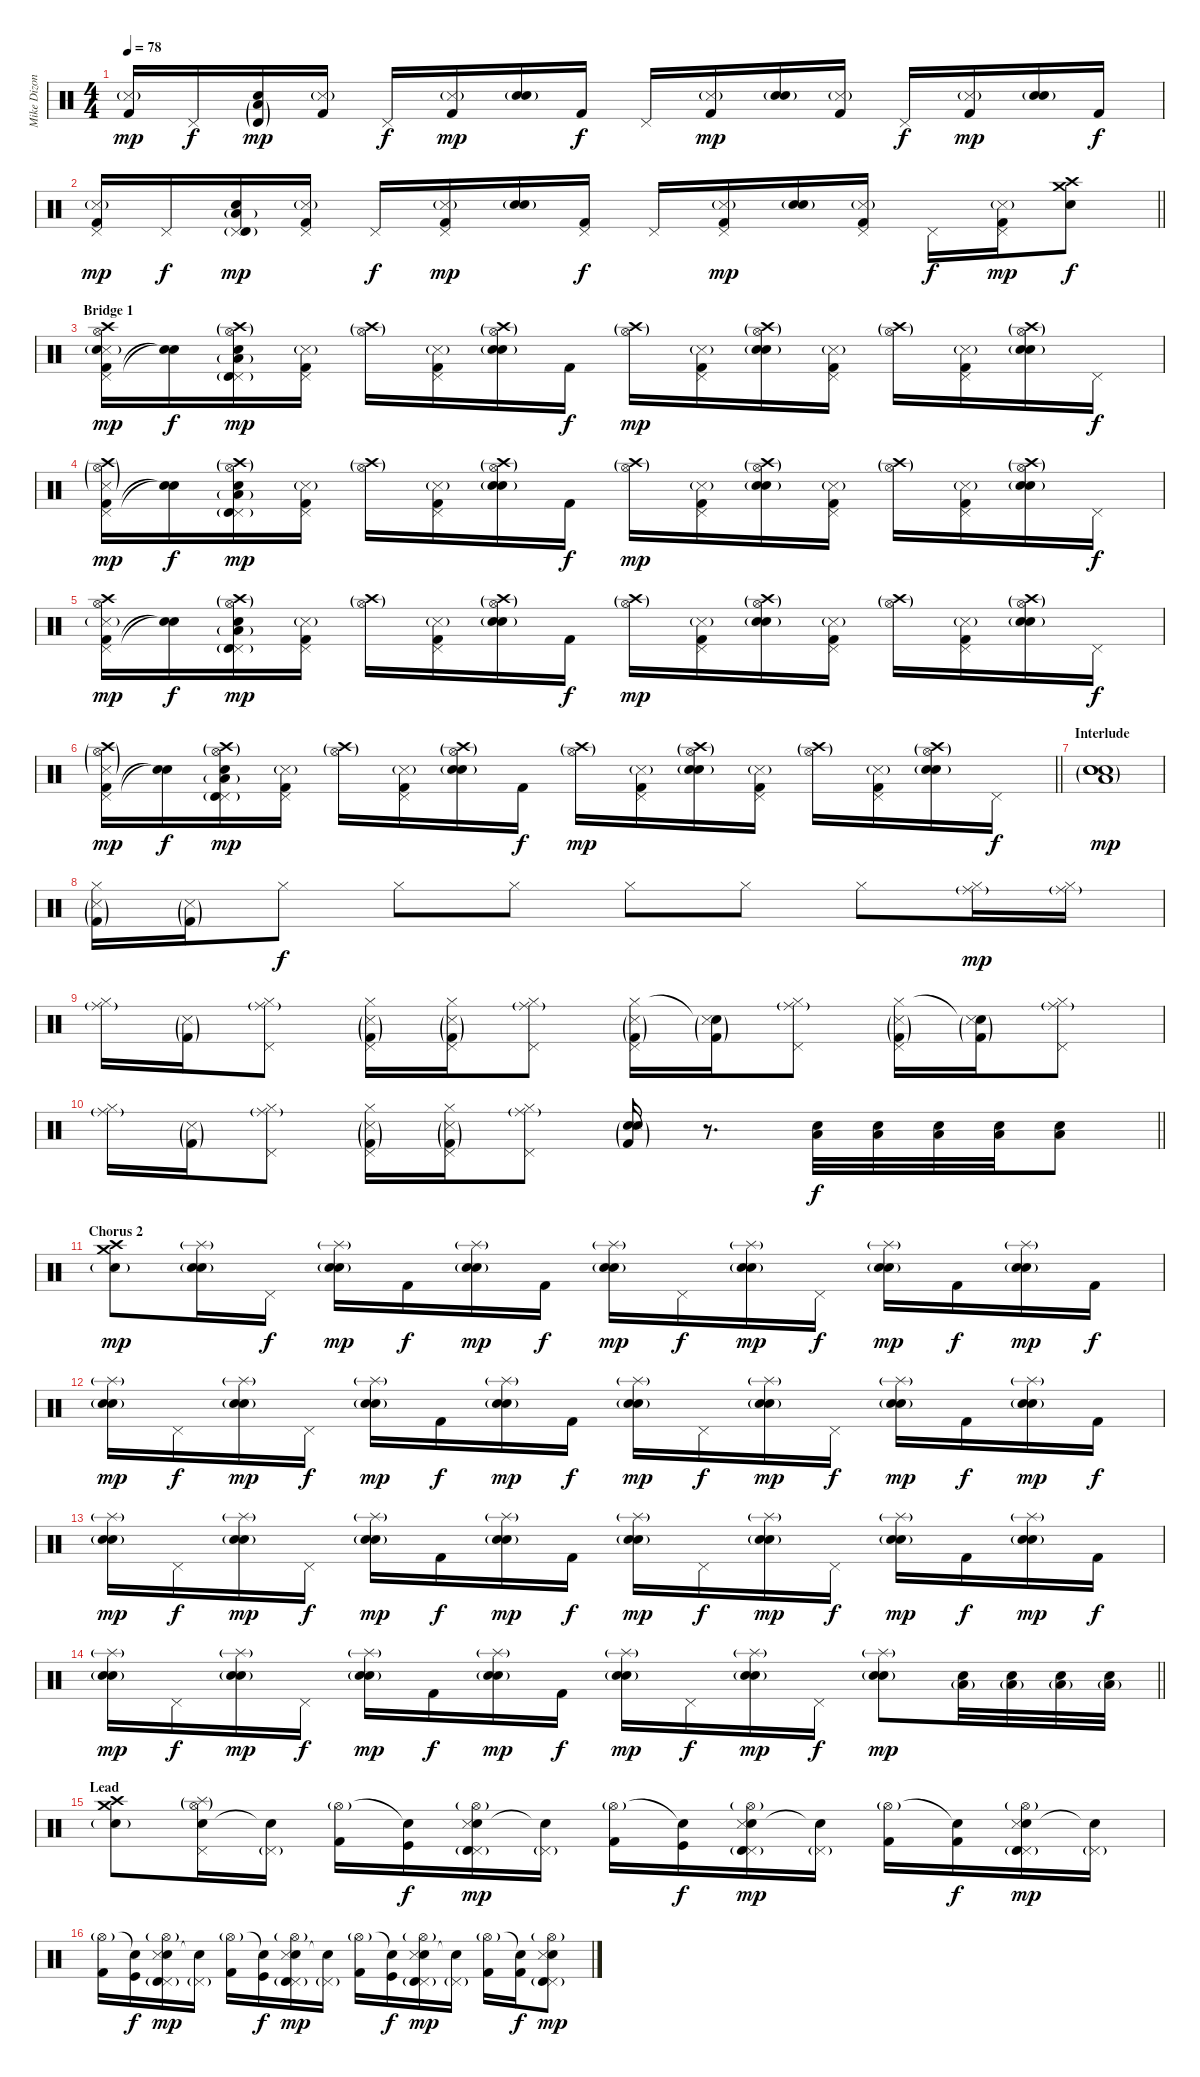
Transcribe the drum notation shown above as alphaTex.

\track ("Mike Dizon (Drums)" "Mike Dizon") {instrument percussion}
\staff {score}
\articulation defaults
\ts (4 4)
\tempo 78
\clef neutral
\ks c
("Kick (hit) 2" "Snare (side stick) 3"{g}).16{dy mp} "Pedal Hi-Hat (hit)".16{dy f} ("Electric Snare (hit)" "Timbale high (hit)"{g} "Low Tom (hit)"{g}).16{dy mp} ("Kick (hit) 2" "Snare (side stick) 3"{g}).16 "Pedal Hi-Hat (hit)".16{dy f} ("Kick (hit) 2" "Snare (side stick) 3"{g}).16{dy mp} ("Electric Snare (hit)" "Snare (hit) 2"{g}).16 "Kick (hit) 2".16{dy f} "Pedal Hi-Hat (hit)".16 ("Kick (hit) 2" "Snare (side stick) 3"{g}).16{dy mp} ("Electric Snare (hit)" "Snare (hit) 2"{g}).16 ("Kick (hit) 2" "Snare (side stick) 3"{g}).16 "Pedal Hi-Hat (hit)".16{dy f} ("Kick (hit) 2" "Snare (side stick) 3"{g}).16{dy mp} ("Electric Snare (hit)" "Snare (hit) 2"{g}).16 "Kick (hit) 2".16{dy f} |
\barLineRight lightlight
("Pedal Hi-Hat (hit)" "Kick (hit) 2" "Snare (side stick) 3"{g}).16{dy mp} "Pedal Hi-Hat (hit)".16{dy f} ("Pedal Hi-Hat (hit)" "Electric Snare (hit)" "Timbale high (hit)"{g} "Low Tom (hit)"{g}).16{dy mp} ("Pedal Hi-Hat (hit)" "Kick (hit) 2" "Snare (side stick) 3"{g}).16 "Pedal Hi-Hat (hit)".16{dy f} ("Pedal Hi-Hat (hit)" "Kick (hit) 2" "Snare (side stick) 3"{g}).16{dy mp} ("Electric Snare (hit)" "Snare (hit) 2"{g}).16 ("Pedal Hi-Hat (hit)" "Kick (hit) 2").16{dy f} "Pedal Hi-Hat (hit)".16 ("Pedal Hi-Hat (hit)" "Kick (hit) 2" "Snare (side stick) 3"{g}).16{dy mp} ("Electric Snare (hit)" "Snare (hit) 2"{g}).16 ("Pedal Hi-Hat (hit)" "Kick (hit) 2" "Snare (side stick) 3"{g}).16 "Pedal Hi-Hat (hit)".16{dy f} ("Pedal Hi-Hat (hit)" "Kick (hit) 2" "Snare (side stick) 3"{g}).16{dy mp} ("Crash medium (hit)" "Crash high (hit)" "Electric Snare (hit)").8{dy f} |
\section ("" "Bridge 1")
("Pedal Hi-Hat (hit)" "Kick (hit) 2" "Snare (side stick) 3"{g} "Electric Snare (hit)"{g} "Hi-Hat (open)" "Crash high (hit)").16{dy mp} ("Snare (hit)"{t} "Snare (hit)"{t}).16{dy f} ("Pedal Hi-Hat (hit)" "Electric Snare (hit)" "Timbale high (hit)"{g} "Low Tom (hit)"{g} "Hi-Hat (open)"{g} "Crash high (hit)"{g}).16{dy mp} ("Pedal Hi-Hat (hit)" "Kick (hit) 2" "Snare (side stick) 3"{g}).16 ("Hi-Hat (open)"{g} "Crash high (hit)"{g}).16 ("Pedal Hi-Hat (hit)" "Kick (hit) 2" "Snare (side stick) 3"{g}).16 ("Electric Snare (hit)" "Snare (hit) 2"{g} "Hi-Hat (open)"{g} "Crash high (hit)"{g}).16 "Kick (hit) 2".16{dy f} ("Hi-Hat (open)"{g} "Crash high (hit)"{g}).16{dy mp} ("Pedal Hi-Hat (hit)" "Kick (hit) 2" "Snare (side stick) 3"{g}).16 ("Electric Snare (hit)" "Snare (hit) 2"{g} "Hi-Hat (open)"{g} "Crash high (hit)"{g}).16 ("Pedal Hi-Hat (hit)" "Kick (hit) 2" "Snare (side stick) 3"{g}).16 ("Hi-Hat (open)"{g} "Crash high (hit)"{g}).16 ("Pedal Hi-Hat (hit)" "Kick (hit) 2" "Snare (side stick) 3"{g}).16 ("Electric Snare (hit)" "Snare (hit) 2"{g} "Hi-Hat (open)"{g} "Crash high (hit)"{g}).16 "Pedal Hi-Hat (hit)".16{dy f} |
("Pedal Hi-Hat (hit)" "Kick (hit) 2" "Snare (side stick) 3"{g} "Hi-Hat (open)"{g} "Crash high (hit)"{g}).16{dy mp} ("Snare (hit)"{t} "Snare (hit)"{t}).16{dy f} ("Pedal Hi-Hat (hit)" "Electric Snare (hit)" "Timbale high (hit)"{g} "Low Tom (hit)"{g} "Hi-Hat (open)"{g} "Crash high (hit)"{g}).16{dy mp} ("Pedal Hi-Hat (hit)" "Kick (hit) 2" "Snare (side stick) 3"{g}).16 ("Hi-Hat (open)"{g} "Crash high (hit)"{g}).16 ("Pedal Hi-Hat (hit)" "Kick (hit) 2" "Snare (side stick) 3"{g}).16 ("Electric Snare (hit)" "Snare (hit) 2"{g} "Hi-Hat (open)"{g} "Crash high (hit)"{g}).16 "Kick (hit) 2".16{dy f} ("Hi-Hat (open)"{g} "Crash high (hit)"{g}).16{dy mp} ("Pedal Hi-Hat (hit)" "Kick (hit) 2" "Snare (side stick) 3"{g}).16 ("Electric Snare (hit)" "Snare (hit) 2"{g} "Hi-Hat (open)"{g} "Crash high (hit)"{g}).16 ("Pedal Hi-Hat (hit)" "Kick (hit) 2" "Snare (side stick) 3"{g}).16 ("Hi-Hat (open)"{g} "Crash high (hit)"{g}).16 ("Pedal Hi-Hat (hit)" "Kick (hit) 2" "Snare (side stick) 3"{g}).16 ("Electric Snare (hit)" "Snare (hit) 2"{g} "Hi-Hat (open)"{g} "Crash high (hit)"{g}).16 "Pedal Hi-Hat (hit)".16{dy f} |
("Pedal Hi-Hat (hit)" "Kick (hit) 2" "Snare (side stick) 3"{g} "Hi-Hat (open)" "Crash high (hit)").16{dy mp} ("Snare (hit)"{t} "Snare (hit)"{t}).16{dy f} ("Pedal Hi-Hat (hit)" "Electric Snare (hit)" "Timbale high (hit)"{g} "Low Tom (hit)"{g} "Hi-Hat (open)"{g} "Crash high (hit)"{g}).16{dy mp} ("Pedal Hi-Hat (hit)" "Kick (hit) 2" "Snare (side stick) 3"{g}).16 ("Hi-Hat (open)"{g} "Crash high (hit)"{g}).16 ("Pedal Hi-Hat (hit)" "Kick (hit) 2" "Snare (side stick) 3"{g}).16 ("Electric Snare (hit)" "Snare (hit) 2"{g} "Hi-Hat (open)"{g} "Crash high (hit)"{g}).16 "Kick (hit) 2".16{dy f} ("Hi-Hat (open)"{g} "Crash high (hit)"{g}).16{dy mp} ("Pedal Hi-Hat (hit)" "Kick (hit) 2" "Snare (side stick) 3"{g}).16 ("Electric Snare (hit)" "Snare (hit) 2"{g} "Hi-Hat (open)"{g} "Crash high (hit)"{g}).16 ("Pedal Hi-Hat (hit)" "Kick (hit) 2" "Snare (side stick) 3"{g}).16 ("Hi-Hat (open)"{g} "Crash high (hit)"{g}).16 ("Pedal Hi-Hat (hit)" "Kick (hit) 2" "Snare (side stick) 3"{g}).16 ("Electric Snare (hit)" "Snare (hit) 2"{g} "Hi-Hat (open)"{g} "Crash high (hit)"{g}).16 "Pedal Hi-Hat (hit)".16{dy f} |
\barLineRight lightlight
("Pedal Hi-Hat (hit)" "Kick (hit) 2" "Snare (side stick) 3"{g} "Hi-Hat (open)"{g} "Crash high (hit)"{g}).16{dy mp} ("Snare (hit)"{t} "Snare (hit)"{t}).16{dy f} ("Pedal Hi-Hat (hit)" "Electric Snare (hit)" "Timbale high (hit)"{g} "Low Tom (hit)"{g} "Hi-Hat (open)"{g} "Crash high (hit)"{g}).16{dy mp} ("Pedal Hi-Hat (hit)" "Kick (hit) 2" "Snare (side stick) 3"{g}).16 ("Hi-Hat (open)"{g} "Crash high (hit)"{g}).16 ("Pedal Hi-Hat (hit)" "Kick (hit) 2" "Snare (side stick) 3"{g}).16 ("Electric Snare (hit)" "Snare (hit) 2"{g} "Hi-Hat (open)"{g} "Crash high (hit)"{g}).16 "Kick (hit) 2".16{dy f} ("Hi-Hat (open)"{g} "Crash high (hit)"{g}).16{dy mp} ("Pedal Hi-Hat (hit)" "Kick (hit) 2" "Snare (side stick) 3"{g}).16 ("Electric Snare (hit)" "Snare (hit) 2"{g} "Hi-Hat (open)"{g} "Crash high (hit)"{g}).16 ("Pedal Hi-Hat (hit)" "Kick (hit) 2" "Snare (side stick) 3"{g}).16 ("Hi-Hat (open)"{g} "Crash high (hit)"{g}).16 ("Pedal Hi-Hat (hit)" "Kick (hit) 2" "Snare (side stick) 3"{g}).16 ("Electric Snare (hit)" "Snare (hit) 2"{g} "Hi-Hat (open)"{g} "Crash high (hit)"{g}).16 "Pedal Hi-Hat (hit)".16{dy f} |
\section ("" "Interlude")
("Electric Snare (hit)" "Electric Snare (hit)" "Low Floor Tom (hit)"{g} "Snare (hit) 2"{g}).1{dy mp} |
("Hi-Hat (closed)" "Snare (side stick) 3"{g} "Kick (hit) 2"{g}).16 ("Snare (side stick) 3"{g} "Kick (hit) 2"{g}).16 "Hi-Hat (closed)".8{dy f} "Hi-Hat (closed)".8 "Hi-Hat (closed)".8 "Hi-Hat (closed)".8 "Hi-Hat (closed)".8 "Hi-Hat (closed)".8 ("Hi-Hat (closed)" "Ride (middle)"{g}).16{dy mp} ("Hi-Hat (closed)" "Ride (middle)"{g}).16 |
("Hi-Hat (closed)" "Ride (middle)"{g}).16 ("Snare (side stick) 3"{g} "Kick (hit) 2"{g}).16 ("Hi-Hat (closed)" "Pedal Hi-Hat (hit)" "Ride (middle)"{g}).8 ("Hi-Hat (closed)" "Pedal Hi-Hat (hit)" "Snare (side stick) 3"{g} "Kick (hit) 2"{g}).16 ("Hi-Hat (closed)" "Pedal Hi-Hat (hit)" "Snare (side stick) 3"{g} "Kick (hit) 2"{g}).16 ("Hi-Hat (closed)" "Pedal Hi-Hat (hit)" "Ride (middle)"{g}).8 ("Hi-Hat (closed)" "Pedal Hi-Hat (hit)" "Snare (side stick) 3"{g} "Kick (hit) 2"{g}).16 ("Snare (hit)"{t} "Snare (side stick) 3"{g} "Kick (hit) 2"{g}).16 ("Hi-Hat (closed)" "Pedal Hi-Hat (hit)" "Ride (middle)"{g}).8 ("Hi-Hat (closed)" "Pedal Hi-Hat (hit)" "Snare (side stick) 3"{g} "Kick (hit) 2"{g}).16 ("Snare (hit)"{t} "Snare (side stick) 3"{g} "Kick (hit) 2"{g}).16 ("Hi-Hat (closed)" "Pedal Hi-Hat (hit)" "Ride (middle)"{g}).8 |
\barLineRight lightlight
("Hi-Hat (closed)" "Ride (middle)"{g}).16 ("Snare (side stick) 3"{g} "Kick (hit) 2"{g}).16 ("Hi-Hat (closed)" "Pedal Hi-Hat (hit)" "Ride (middle)"{g}).8 ("Hi-Hat (closed)" "Pedal Hi-Hat (hit)" "Snare (side stick) 3"{g} "Kick (hit) 2"{g}).16 ("Hi-Hat (closed)" "Pedal Hi-Hat (hit)" "Snare (side stick) 3"{g} "Kick (hit) 2"{g}).16 ("Hi-Hat (closed)" "Pedal Hi-Hat (hit)" "Ride (middle)"{g}).8 ("Electric Snare (hit)" "Snare (hit) 2" "Snare (side stick) 3"{g} "Kick (hit) 2"{g}).16 r.8{d} ("Electric Snare (hit)" "Low Floor Tom (hit)").32{dy f} ("Electric Snare (hit)" "Low Floor Tom (hit)").32 ("Electric Snare (hit)" "Low Floor Tom (hit)").32 ("Electric Snare (hit)" "Low Floor Tom (hit)").32 ("Electric Snare (hit)" "Low Floor Tom (hit)").8 |
\section ("" "Chorus 2")
("Crash high (hit)" "Crash medium (hit)" "Electric Snare (hit)"{g}).8{dy mp} ("Electric Snare (hit)" "Snare (hit) 2"{g} "Splash (hit)"{g}).16 "Pedal Hi-Hat (hit)".16{dy f} ("Electric Snare (hit)" "Snare (hit) 2"{g} "Splash (hit)"{g}).16{dy mp} "Kick (hit) 2".16{dy f} ("Electric Snare (hit)" "Snare (hit) 2"{g} "Splash (hit)"{g}).16{dy mp} "Kick (hit) 2".16{dy f} ("Electric Snare (hit)" "Snare (hit) 2"{g} "Splash (hit)"{g}).16{dy mp} "Pedal Hi-Hat (hit)".16{dy f} ("Electric Snare (hit)" "Snare (hit) 2"{g} "Splash (hit)"{g}).16{dy mp} "Pedal Hi-Hat (hit)".16{dy f} ("Electric Snare (hit)" "Snare (hit) 2"{g} "Splash (hit)"{g}).16{dy mp} "Kick (hit) 2".16{dy f} ("Electric Snare (hit)" "Snare (hit) 2"{g} "Splash (hit)"{g}).16{dy mp} "Kick (hit) 2".16{dy f} |
("Electric Snare (hit)" "Snare (hit) 2"{g} "Splash (hit)"{g}).16{dy mp} "Pedal Hi-Hat (hit)".16{dy f} ("Electric Snare (hit)" "Snare (hit) 2"{g} "Splash (hit)"{g}).16{dy mp} "Pedal Hi-Hat (hit)".16{dy f} ("Electric Snare (hit)" "Snare (hit) 2"{g} "Splash (hit)"{g}).16{dy mp} "Kick (hit) 2".16{dy f} ("Electric Snare (hit)" "Snare (hit) 2"{g} "Splash (hit)"{g}).16{dy mp} "Kick (hit) 2".16{dy f} ("Electric Snare (hit)" "Snare (hit) 2"{g} "Splash (hit)"{g}).16{dy mp} "Pedal Hi-Hat (hit)".16{dy f} ("Electric Snare (hit)" "Snare (hit) 2"{g} "Splash (hit)"{g}).16{dy mp} "Pedal Hi-Hat (hit)".16{dy f} ("Electric Snare (hit)" "Snare (hit) 2"{g} "Splash (hit)"{g}).16{dy mp} "Kick (hit) 2".16{dy f} ("Electric Snare (hit)" "Snare (hit) 2"{g} "Splash (hit)"{g}).16{dy mp} "Kick (hit) 2".16{dy f} |
("Electric Snare (hit)" "Snare (hit) 2"{g} "Splash (hit)"{g}).16{dy mp} "Pedal Hi-Hat (hit)".16{dy f} ("Electric Snare (hit)" "Snare (hit) 2"{g} "Splash (hit)"{g}).16{dy mp} "Pedal Hi-Hat (hit)".16{dy f} ("Electric Snare (hit)" "Snare (hit) 2"{g} "Splash (hit)"{g}).16{dy mp} "Kick (hit) 2".16{dy f} ("Electric Snare (hit)" "Snare (hit) 2"{g} "Splash (hit)"{g}).16{dy mp} "Kick (hit) 2".16{dy f} ("Electric Snare (hit)" "Snare (hit) 2"{g} "Splash (hit)"{g}).16{dy mp} "Pedal Hi-Hat (hit)".16{dy f} ("Electric Snare (hit)" "Snare (hit) 2"{g} "Splash (hit)"{g}).16{dy mp} "Pedal Hi-Hat (hit)".16{dy f} ("Electric Snare (hit)" "Snare (hit) 2"{g} "Splash (hit)"{g}).16{dy mp} "Kick (hit) 2".16{dy f} ("Electric Snare (hit)" "Snare (hit) 2"{g} "Splash (hit)"{g}).16{dy mp} "Kick (hit) 2".16{dy f} |
\barLineRight lightlight
("Electric Snare (hit)" "Snare (hit) 2"{g} "Splash (hit)"{g}).16{dy mp} "Pedal Hi-Hat (hit)".16{dy f} ("Electric Snare (hit)" "Snare (hit) 2"{g} "Splash (hit)"{g}).16{dy mp} "Pedal Hi-Hat (hit)".16{dy f} ("Electric Snare (hit)" "Snare (hit) 2"{g} "Splash (hit)"{g}).16{dy mp} "Kick (hit) 2".16{dy f} ("Electric Snare (hit)" "Snare (hit) 2"{g} "Splash (hit)"{g}).16{dy mp} "Kick (hit) 2".16{dy f} ("Electric Snare (hit)" "Snare (hit) 2"{g} "Splash (hit)"{g}).16{dy mp} "Pedal Hi-Hat (hit)".16{dy f} ("Electric Snare (hit)" "Snare (hit) 2"{g} "Splash (hit)"{g}).16{dy mp} "Pedal Hi-Hat (hit)".16{dy f} ("Electric Snare (hit)" "Snare (hit) 2"{g} "Splash (hit)"{g}).8{dy mp} ("Electric Snare (hit)" "Low Floor Tom (hit)"{g}).32 ("Electric Snare (hit)" "Low Floor Tom (hit)"{g}).32 ("Electric Snare (hit)" "Low Floor Tom (hit)"{g}).32 ("Electric Snare (hit)" "Low Floor Tom (hit)"{g}).32 |
\section ("" "Lead")
("Crash high (hit)" "Crash medium (hit)" "Electric Snare (hit)"{g}).8 ("Pedal Hi-Hat (hit)" "Electric Snare (hit)" "Hi-Hat (open)"{g} "Splash (hit)"{g}).16 ("Pedal Hi-Hat (hit)"{g} "Snare (hit)"{t}).16 ("Kick (hit) 2" "Hi-Hat (open)"{g}).16 ("Kick (hit)" "Snare (hit)"{t}).16{dy f} ("Pedal Hi-Hat (hit)" "Electric Snare (hit)" "Hi-Hat (open)"{g} "Snare (side stick) 3" "Timbale high (hit)"{g}).16{dy mp} ("Pedal Hi-Hat (hit)"{g} "Snare (hit)"{t}).16 ("Kick (hit) 2" "Hi-Hat (open)"{g}).16 ("Kick (hit)" "Snare (hit)"{t}).16{dy f} ("Pedal Hi-Hat (hit)" "Electric Snare (hit)" "Hi-Hat (open)"{g} "Snare (side stick) 3" "Timbale high (hit)"{g}).16{dy mp} ("Pedal Hi-Hat (hit)"{g} "Snare (hit)"{t}).16 ("Kick (hit) 2" "Hi-Hat (open)"{g}).16 ("Kick (hit) 2" "Snare (hit)"{t}).16{dy f} ("Pedal Hi-Hat (hit)" "Electric Snare (hit)" "Hi-Hat (open)"{g} "Snare (side stick) 3" "Timbale high (hit)"{g}).16{dy mp} ("Pedal Hi-Hat (hit)"{g} "Snare (hit)"{t}).16 |
("Kick (hit) 2" "Hi-Hat (open)"{g}).16 ("Kick (hit)" "Snare (hit)"{t}).16{dy f} ("Pedal Hi-Hat (hit)" "Electric Snare (hit)" "Hi-Hat (open)"{g} "Snare (side stick) 3" "Timbale high (hit)"{g}).16{dy mp} ("Pedal Hi-Hat (hit)"{g} "Snare (hit)"{t}).16 ("Kick (hit) 2" "Hi-Hat (open)"{g}).16 ("Kick (hit)" "Snare (hit)"{t}).16{dy f} ("Pedal Hi-Hat (hit)" "Electric Snare (hit)" "Hi-Hat (open)"{g} "Snare (side stick) 3" "Timbale high (hit)"{g}).16{dy mp} ("Pedal Hi-Hat (hit)"{g} "Snare (hit)"{t}).16 ("Kick (hit) 2" "Hi-Hat (open)"{g}).16 ("Kick (hit)" "Snare (hit)"{t}).16{dy f} ("Pedal Hi-Hat (hit)" "Electric Snare (hit)" "Hi-Hat (open)"{g} "Snare (side stick) 3" "Timbale high (hit)"{g}).16{dy mp} ("Pedal Hi-Hat (hit)"{g} "Snare (hit)"{t}).16 ("Kick (hit) 2" "Hi-Hat (open)"{g}).16 ("Kick (hit) 2" "Snare (hit)"{t}).16{dy f} ("Pedal Hi-Hat (hit)" "Electric Snare (hit)" "Hi-Hat (open)"{g} "Snare (side stick) 3" "Timbale high (hit)"{g}).8{dy mp}
